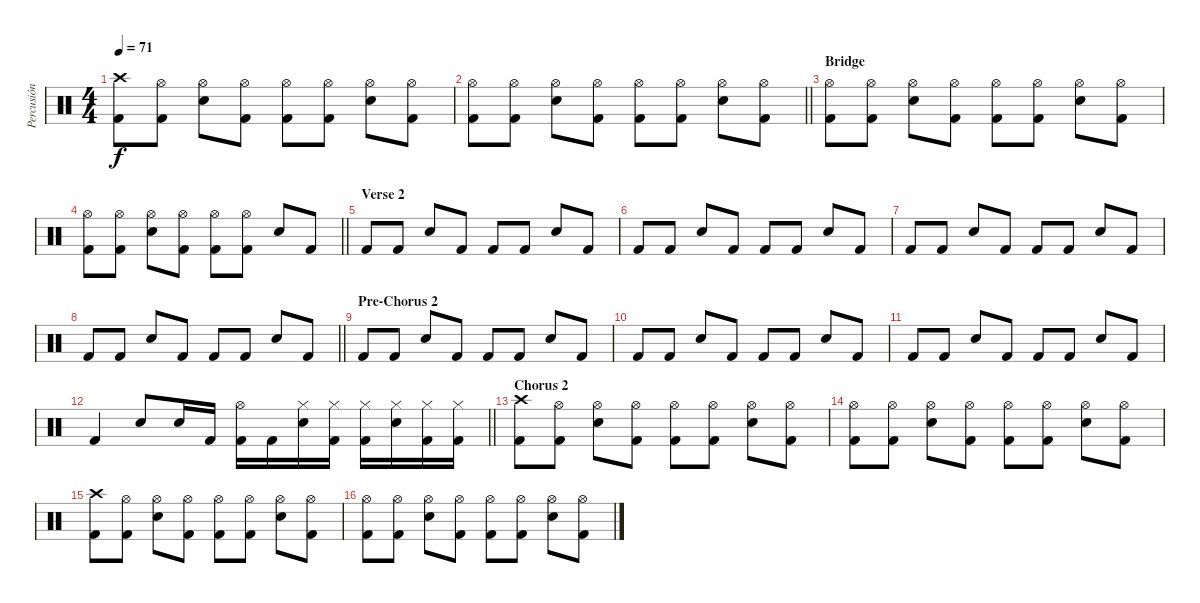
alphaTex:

\track ("Percusión" "Percusión") {instrument percussion}
\staff {score}
\articulation defaults
\ts (4 4)
\tempo 71
\clef neutral
\ks c
("Crash high (hit)" "Kick (hit) 2").8{dy f} ("Hi-Hat (open)" "Kick (hit) 2").8 ("Hi-Hat (open)" "Snare (hit) 2").8 ("Hi-Hat (open)" "Kick (hit) 2").8 ("Hi-Hat (open)" "Kick (hit) 2").8 ("Hi-Hat (open)" "Kick (hit) 2").8 ("Hi-Hat (open)" "Snare (hit) 2").8 ("Hi-Hat (open)" "Kick (hit) 2").8 |
\barLineRight lightlight
("Hi-Hat (open)" "Kick (hit) 2").8 ("Hi-Hat (open)" "Kick (hit) 2").8 ("Hi-Hat (open)" "Snare (hit) 2").8 ("Hi-Hat (open)" "Kick (hit) 2").8 ("Hi-Hat (open)" "Kick (hit) 2").8 ("Hi-Hat (open)" "Kick (hit) 2").8 ("Hi-Hat (open)" "Snare (hit) 2").8 ("Hi-Hat (open)" "Kick (hit) 2").8 |
\section ("" "Bridge")
("Hi-Hat (open)" "Kick (hit) 2").8 ("Hi-Hat (open)" "Kick (hit) 2").8 ("Hi-Hat (open)" "Snare (hit) 2").8 ("Hi-Hat (open)" "Kick (hit) 2").8 ("Hi-Hat (open)" "Kick (hit) 2").8 ("Hi-Hat (open)" "Kick (hit) 2").8 ("Hi-Hat (open)" "Snare (hit) 2").8 ("Hi-Hat (open)" "Kick (hit) 2").8 |
\barLineRight lightlight
("Hi-Hat (open)" "Kick (hit) 2").8 ("Hi-Hat (open)" "Kick (hit) 2").8 ("Hi-Hat (open)" "Snare (hit) 2").8 ("Hi-Hat (open)" "Kick (hit) 2").8 ("Hi-Hat (open)" "Kick (hit) 2").8 ("Hi-Hat (open)" "Kick (hit) 2").8 "Snare (hit) 2".8 "Kick (hit) 2".8 |
\section ("" "Verse 2")
"Kick (hit) 2".8 "Kick (hit) 2".8 "Snare (hit) 2".8 "Kick (hit) 2".8 "Kick (hit) 2".8 "Kick (hit) 2".8 "Snare (hit) 2".8 "Kick (hit) 2".8 |
"Kick (hit) 2".8 "Kick (hit) 2".8 "Snare (hit) 2".8 "Kick (hit) 2".8 "Kick (hit) 2".8 "Kick (hit) 2".8 "Snare (hit) 2".8 "Kick (hit) 2".8 |
"Kick (hit) 2".8 "Kick (hit) 2".8 "Snare (hit) 2".8 "Kick (hit) 2".8 "Kick (hit) 2".8 "Kick (hit) 2".8 "Snare (hit) 2".8 "Kick (hit) 2".8 |
\barLineRight lightlight "Kick (hit) 2".8 "Kick (hit) 2".8 "Snare (hit) 2".8 "Kick (hit) 2".8 "Kick (hit) 2".8 "Kick (hit) 2".8 "Snare (hit) 2".8 "Kick (hit) 2".8
|
\section ("" "Pre-Chorus 2")
"Kick (hit) 2".8 "Kick (hit) 2".8 "Snare (hit) 2".8 "Kick (hit) 2".8 "Kick (hit) 2".8 "Kick (hit) 2".8 "Snare (hit) 2".8 "Kick (hit) 2".8 |
"Kick (hit) 2".8 "Kick (hit) 2".8 "Snare (hit) 2".8 "Kick (hit) 2".8 "Kick (hit) 2".8 "Kick (hit) 2".8 "Snare (hit) 2".8 "Kick (hit) 2".8 |
"Kick (hit) 2".8 "Kick (hit) 2".8 "Snare (hit) 2".8 "Kick (hit) 2".8 "Kick (hit) 2".8 "Kick (hit) 2".8 "Snare (hit) 2".8 "Kick (hit) 2".8 |
\barLineRight lightlight "Kick (hit) 2".4 "Snare (hit) 2".8 "Snare (hit) 2".16 "Kick (hit) 2".16
("Hi-Hat (open)" "Kick (hit) 2").16 "Kick (hit) 2".16 ("Hi-Hat (closed)" "Snare (hit) 2").16 ("Hi-Hat (closed)" "Kick (hit) 2").16 ("Hi-Hat (closed)" "Kick (hit) 2").16 ("Hi-Hat (closed)" "Snare (hit) 2").16 ("Hi-Hat (closed)" "Kick (hit) 2").16 ("Hi-Hat (closed)" "Kick (hit) 2").16 |
\section ("" "Chorus 2")
("Crash high (hit)" "Kick (hit) 2").8 ("Hi-Hat (open)" "Kick (hit) 2").8 ("Hi-Hat (open)" "Snare (hit) 2").8 ("Hi-Hat (open)" "Kick (hit) 2").8 ("Hi-Hat (open)" "Kick (hit) 2").8 ("Hi-Hat (open)" "Kick (hit) 2").8 ("Hi-Hat (open)" "Snare (hit) 2").8 ("Hi-Hat (open)" "Kick (hit) 2").8 |
("Hi-Hat (open)" "Kick (hit) 2").8 ("Hi-Hat (open)" "Kick (hit) 2").8 ("Hi-Hat (open)" "Snare (hit) 2").8 ("Hi-Hat (open)" "Kick (hit) 2").8 ("Hi-Hat (open)" "Kick (hit) 2").8 ("Hi-Hat (open)" "Kick (hit) 2").8 ("Hi-Hat (open)" "Snare (hit) 2").8 ("Hi-Hat (open)" "Kick (hit) 2").8 |
("Crash high (hit)" "Kick (hit) 2").8 ("Hi-Hat (open)" "Kick (hit) 2").8 ("Hi-Hat (open)" "Snare (hit) 2").8 ("Hi-Hat (open)" "Kick (hit) 2").8 ("Hi-Hat (open)" "Kick (hit) 2").8 ("Hi-Hat (open)" "Kick (hit) 2").8 ("Hi-Hat (open)" "Snare (hit) 2").8 ("Hi-Hat (open)" "Kick (hit) 2").8 |
("Hi-Hat (open)" "Kick (hit) 2").8 ("Hi-Hat (open)" "Kick (hit) 2").8 ("Hi-Hat (open)" "Snare (hit) 2").8 ("Hi-Hat (open)" "Kick (hit) 2").8 ("Hi-Hat (open)" "Kick (hit) 2").8 ("Hi-Hat (open)" "Kick (hit) 2").8 ("Hi-Hat (open)" "Snare (hit) 2").8 ("Hi-Hat (open)" "Kick (hit) 2").8
